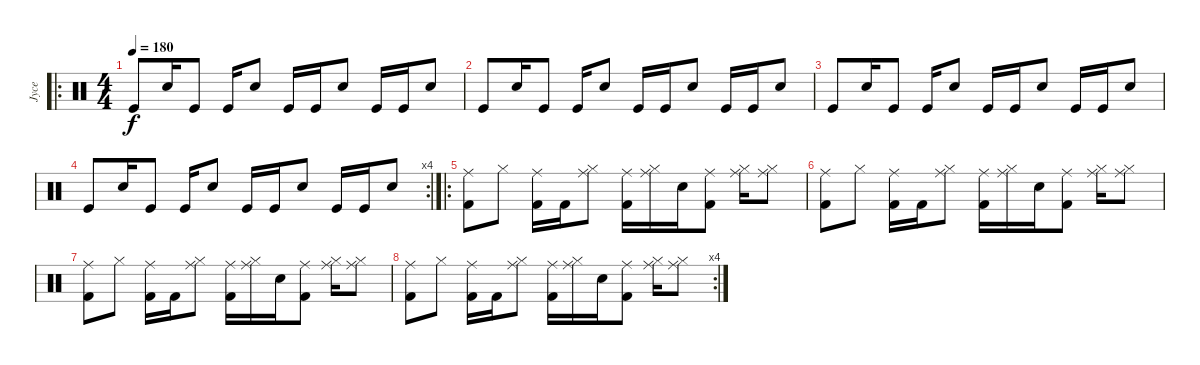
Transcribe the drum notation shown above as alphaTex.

\track ("Jyce" "Jyce") {instrument percussion}
\staff {score}
\articulation defaults
\ro
\ts (4 4)
\tempo 180
\clef neutral
\ks c "Kick (hit)".8{dy f} "Snare (hit) 2".16 "Kick (hit)".8 "Kick (hit)".16 "Snare (hit) 2".8 "Kick (hit)".16 "Kick (hit)".16 "Snare (hit) 2".8 "Kick (hit)".16 "Kick (hit)".16 "Snare (hit) 2".8
|
"Kick (hit)".8 "Snare (hit) 2".16 "Kick (hit)".8 "Kick (hit)".16 "Snare (hit) 2".8 "Kick (hit)".16 "Kick (hit)".16 "Snare (hit) 2".8 "Kick (hit)".16 "Kick (hit)".16 "Snare (hit) 2".8 |
"Kick (hit)".8 "Snare (hit) 2".16 "Kick (hit)".8 "Kick (hit)".16 "Snare (hit) 2".8 "Kick (hit)".16 "Kick (hit)".16 "Snare (hit) 2".8 "Kick (hit)".16 "Kick (hit)".16 "Snare (hit) 2".8 |
\rc 4 "Kick (hit)".8 "Snare (hit) 2".16 "Kick (hit)".8 "Kick (hit)".16 "Snare (hit) 2".8 "Kick (hit)".16 "Kick (hit)".16 "Snare (hit) 2".8 "Kick (hit)".16 "Kick (hit)".16 "Snare (hit) 2".8
|
\ro
("Ride (middle)" "Kick (hit) 2").8 "Hi-Hat (closed)".8 ("Ride (middle)" "Kick (hit) 2").16 "Kick (hit) 2".16 ("Ride (middle)" "Hi-Hat (closed)").8 ("Ride (middle)" "Kick (hit) 2").16 ("Ride (middle)" "Hi-Hat (closed)").16 "Snare (hit) 2".16 ("Ride (middle)" "Kick (hit) 2").8 ("Ride (middle)" "Hi-Hat (closed)").16 ("Ride (middle)" "Hi-Hat (closed)").8 |
("Ride (middle)" "Kick (hit) 2").8 "Hi-Hat (closed)".8 ("Ride (middle)" "Kick (hit) 2").16 "Kick (hit) 2".16 ("Ride (middle)" "Hi-Hat (closed)").8 ("Ride (middle)" "Kick (hit) 2").16 ("Ride (middle)" "Hi-Hat (closed)").16 "Snare (hit) 2".16 ("Ride (middle)" "Kick (hit) 2").8 ("Ride (middle)" "Hi-Hat (closed)").16 ("Ride (middle)" "Hi-Hat (closed)").8 |
("Ride (middle)" "Kick (hit) 2").8 "Hi-Hat (closed)".8 ("Ride (middle)" "Kick (hit) 2").16 "Kick (hit) 2".16 ("Ride (middle)" "Hi-Hat (closed)").8 ("Ride (middle)" "Kick (hit) 2").16 ("Ride (middle)" "Hi-Hat (closed)").16 "Snare (hit) 2".16 ("Ride (middle)" "Kick (hit) 2").8 ("Ride (middle)" "Hi-Hat (closed)").16 ("Ride (middle)" "Hi-Hat (closed)").8 |
\rc 4
("Ride (middle)" "Kick (hit) 2").8 "Hi-Hat (closed)".8 ("Ride (middle)" "Kick (hit) 2").16 "Kick (hit) 2".16 ("Ride (middle)" "Hi-Hat (closed)").8 ("Ride (middle)" "Kick (hit) 2").16 ("Ride (middle)" "Hi-Hat (closed)").16 "Snare (hit) 2".16 ("Ride (middle)" "Kick (hit) 2").8 ("Ride (middle)" "Hi-Hat (closed)").16 ("Ride (middle)" "Hi-Hat (closed)").8
